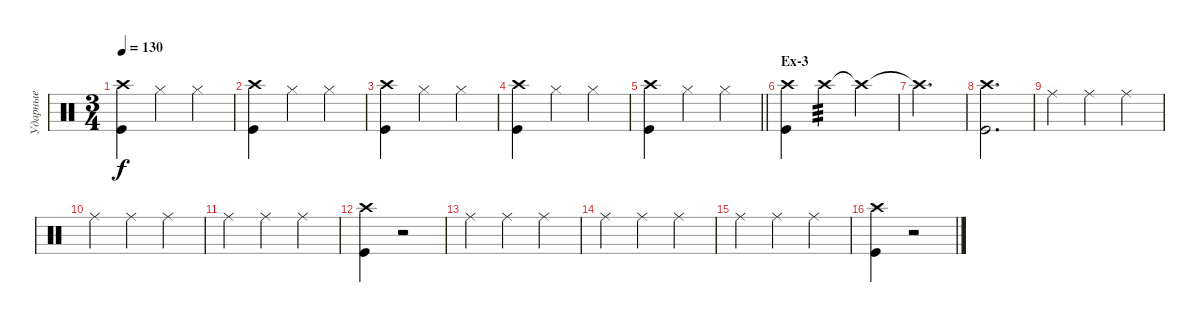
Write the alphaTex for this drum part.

\track ("Ударные" "Ударные") {instrument percussion}
\staff {score}
\articulation defaults
\ts (3 4)
\tempo 130
\clef neutral
\ks c
("Crash high (hit)" "Kick (hit)").4{dy f} "Hi-Hat (closed)".4 "Hi-Hat (closed)".4 |
("Crash high (hit)" "Kick (hit)").4 "Hi-Hat (closed)".4 "Hi-Hat (closed)".4 |
("Crash high (hit)" "Kick (hit)").4 "Hi-Hat (closed)".4 "Hi-Hat (closed)".4 |
("Crash high (hit)" "Kick (hit)").4 "Hi-Hat (closed)".4 "Hi-Hat (closed)".4 |
\barLineRight lightlight
("Crash high (hit)" "Kick (hit)").4 "Hi-Hat (closed)".4 "Hi-Hat (closed)".4 |
\section ("" "Ex-3")
("Crash high (hit)" "Kick (hit)").4 "Crash high (hit)".4{tp 3 volume 10} "Crash high (hit)"{t}.4{volume 16} |
"Crash high (hit)"{t}.2{d} |
("Crash high (hit)" "Kick (hit)").2{d} |
"Ride (middle)".4 "Ride (middle)".4 "Ride (middle)".4 |
"Ride (middle)".4 "Ride (middle)".4 "Ride (middle)".4 |
"Ride (middle)".4 "Ride (middle)".4 "Ride (middle)".4 |
("Crash high (hit)" "Kick (hit)").4 r.2 |
"Ride (middle)".4 "Ride (middle)".4 "Ride (middle)".4 |
"Ride (middle)".4 "Ride (middle)".4 "Ride (middle)".4 |
"Ride (middle)".4 "Ride (middle)".4 "Ride (middle)".4 |
("Crash high (hit)" "Kick (hit)").4 r.2
